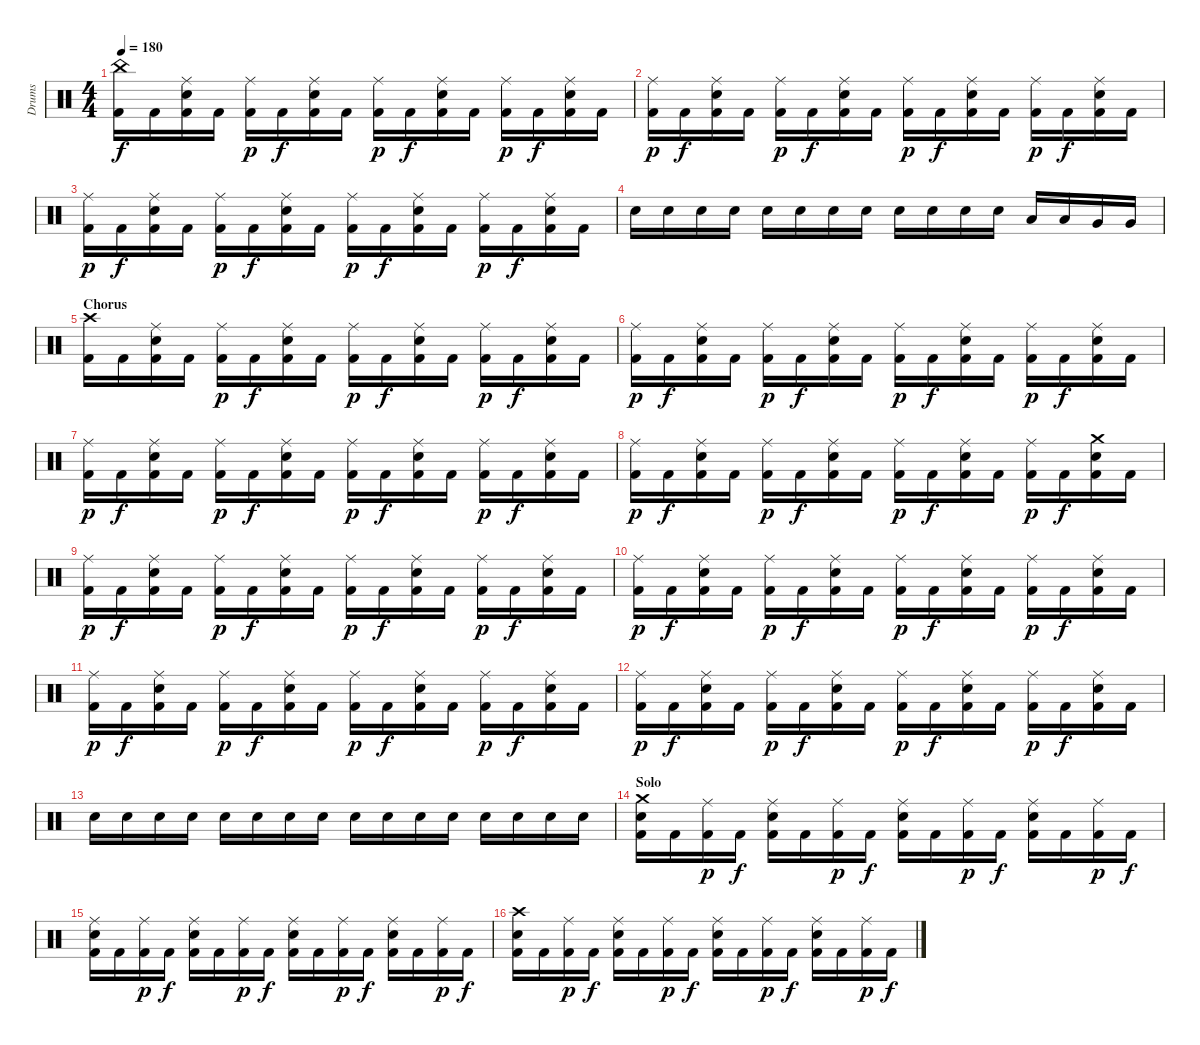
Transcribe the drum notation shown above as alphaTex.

\track ("Drums" "Drums") {instrument percussion}
\staff {score}
\articulation defaults
\ts (4 4)
\tempo 180
\clef neutral
\ks c
("China (hit)" "Kick (hit) 2").16{dy f} "Kick (hit) 2".16 ("Ride (middle)" "Snare (hit) 2" "Kick (hit) 2").16 "Kick (hit) 2".16 ("Ride (middle)" "Kick (hit) 2").16{dy p} "Kick (hit) 2".16{dy f} ("Ride (middle)" "Snare (hit) 2" "Kick (hit) 2").16 "Kick (hit) 2".16 ("Ride (middle)" "Kick (hit) 2").16{dy p} "Kick (hit) 2".16{dy f} ("Ride (middle)" "Snare (hit) 2" "Kick (hit) 2").16 "Kick (hit) 2".16 ("Ride (middle)" "Kick (hit) 2").16{dy p} "Kick (hit) 2".16{dy f} ("Ride (middle)" "Snare (hit) 2" "Kick (hit) 2").16 "Kick (hit) 2".16 |
("Ride (middle)" "Kick (hit) 2").16{dy p} "Kick (hit) 2".16{dy f} ("Ride (middle)" "Snare (hit) 2" "Kick (hit) 2").16 "Kick (hit) 2".16 ("Ride (middle)" "Kick (hit) 2").16{dy p} "Kick (hit) 2".16{dy f} ("Ride (middle)" "Snare (hit) 2" "Kick (hit) 2").16 "Kick (hit) 2".16 ("Ride (middle)" "Kick (hit) 2").16{dy p} "Kick (hit) 2".16{dy f} ("Ride (middle)" "Snare (hit) 2" "Kick (hit) 2").16 "Kick (hit) 2".16 ("Ride (middle)" "Kick (hit) 2").16{dy p} "Kick (hit) 2".16{dy f} ("Ride (middle)" "Snare (hit) 2" "Kick (hit) 2").16 "Kick (hit) 2".16 |
("Ride (middle)" "Kick (hit) 2").16{dy p} "Kick (hit) 2".16{dy f} ("Ride (middle)" "Snare (hit) 2" "Kick (hit) 2").16 "Kick (hit) 2".16 ("Ride (middle)" "Kick (hit) 2").16{dy p} "Kick (hit) 2".16{dy f} ("Ride (middle)" "Snare (hit) 2" "Kick (hit) 2").16 "Kick (hit) 2".16 ("Ride (middle)" "Kick (hit) 2").16{dy p} "Kick (hit) 2".16{dy f} ("Ride (middle)" "Snare (hit) 2" "Kick (hit) 2").16 "Kick (hit) 2".16 ("Ride (middle)" "Kick (hit) 2").16{dy p} "Kick (hit) 2".16{dy f} ("Ride (middle)" "Snare (hit) 2" "Kick (hit) 2").16 "Kick (hit) 2".16 |
"Snare (hit) 2".16 "Snare (hit) 2".16 "Snare (hit) 2".16 "Snare (hit) 2".16 "Snare (hit) 2".16 "Snare (hit) 2".16 "Snare (hit) 2".16 "Snare (hit) 2".16 "Snare (hit) 2".16 "Snare (hit) 2".16 "Snare (hit) 2".16 "Snare (hit) 2".16 "Low Tom (hit)".16 "Low Tom (hit)".16 "Very Low Tom (hit)".16 "Very Low Tom (hit)".16 |
\section ("" "Chorus")
("Crash high (hit)" "Kick (hit) 2").16 "Kick (hit) 2".16 ("Ride (middle)" "Snare (hit) 2" "Kick (hit) 2").16 "Kick (hit) 2".16 ("Ride (middle)" "Kick (hit) 2").16{dy p} "Kick (hit) 2".16{dy f} ("Ride (middle)" "Snare (hit) 2" "Kick (hit) 2").16 "Kick (hit) 2".16 ("Ride (middle)" "Kick (hit) 2").16{dy p} "Kick (hit) 2".16{dy f} ("Ride (middle)" "Snare (hit) 2" "Kick (hit) 2").16 "Kick (hit) 2".16 ("Ride (middle)" "Kick (hit) 2").16{dy p} "Kick (hit) 2".16{dy f} ("Ride (middle)" "Snare (hit) 2" "Kick (hit) 2").16 "Kick (hit) 2".16 |
("Ride (middle)" "Kick (hit) 2").16{dy p} "Kick (hit) 2".16{dy f} ("Ride (middle)" "Snare (hit) 2" "Kick (hit) 2").16 "Kick (hit) 2".16 ("Ride (middle)" "Kick (hit) 2").16{dy p} "Kick (hit) 2".16{dy f} ("Ride (middle)" "Snare (hit) 2" "Kick (hit) 2").16 "Kick (hit) 2".16 ("Ride (middle)" "Kick (hit) 2").16{dy p} "Kick (hit) 2".16{dy f} ("Ride (middle)" "Snare (hit) 2" "Kick (hit) 2").16 "Kick (hit) 2".16 ("Ride (middle)" "Kick (hit) 2").16{dy p} "Kick (hit) 2".16{dy f} ("Ride (middle)" "Snare (hit) 2" "Kick (hit) 2").16 "Kick (hit) 2".16 |
("Ride (middle)" "Kick (hit) 2").16{dy p} "Kick (hit) 2".16{dy f} ("Ride (middle)" "Snare (hit) 2" "Kick (hit) 2").16 "Kick (hit) 2".16 ("Ride (middle)" "Kick (hit) 2").16{dy p} "Kick (hit) 2".16{dy f} ("Ride (middle)" "Snare (hit) 2" "Kick (hit) 2").16 "Kick (hit) 2".16 ("Ride (middle)" "Kick (hit) 2").16{dy p} "Kick (hit) 2".16{dy f} ("Ride (middle)" "Snare (hit) 2" "Kick (hit) 2").16 "Kick (hit) 2".16 ("Ride (middle)" "Kick (hit) 2").16{dy p} "Kick (hit) 2".16{dy f} ("Ride (middle)" "Snare (hit) 2" "Kick (hit) 2").16 "Kick (hit) 2".16 |
("Ride (middle)" "Kick (hit) 2").16{dy p} "Kick (hit) 2".16{dy f} ("Ride (middle)" "Snare (hit) 2" "Kick (hit) 2").16 "Kick (hit) 2".16 ("Ride (middle)" "Kick (hit) 2").16{dy p} "Kick (hit) 2".16{dy f} ("Ride (middle)" "Snare (hit) 2" "Kick (hit) 2").16 "Kick (hit) 2".16 ("Ride (middle)" "Kick (hit) 2").16{dy p} "Kick (hit) 2".16{dy f} ("Ride (middle)" "Snare (hit) 2" "Kick (hit) 2").16 "Kick (hit) 2".16 ("Ride (middle)" "Kick (hit) 2").16{dy p} "Kick (hit) 2".16{dy f} ("Crash medium (hit)" "Snare (hit) 2" "Kick (hit) 2").16 "Kick (hit) 2".16 |
("Ride (middle)" "Kick (hit) 2").16{dy p} "Kick (hit) 2".16{dy f} ("Ride (middle)" "Snare (hit) 2" "Kick (hit) 2").16 "Kick (hit) 2".16 ("Ride (middle)" "Kick (hit) 2").16{dy p} "Kick (hit) 2".16{dy f} ("Ride (middle)" "Snare (hit) 2" "Kick (hit) 2").16 "Kick (hit) 2".16 ("Ride (middle)" "Kick (hit) 2").16{dy p} "Kick (hit) 2".16{dy f} ("Ride (middle)" "Snare (hit) 2" "Kick (hit) 2").16 "Kick (hit) 2".16 ("Ride (middle)" "Kick (hit) 2").16{dy p} "Kick (hit) 2".16{dy f} ("Ride (middle)" "Snare (hit) 2" "Kick (hit) 2").16 "Kick (hit) 2".16 |
("Ride (middle)" "Kick (hit) 2").16{dy p} "Kick (hit) 2".16{dy f} ("Ride (middle)" "Snare (hit) 2" "Kick (hit) 2").16 "Kick (hit) 2".16 ("Ride (middle)" "Kick (hit) 2").16{dy p} "Kick (hit) 2".16{dy f} ("Ride (middle)" "Snare (hit) 2" "Kick (hit) 2").16 "Kick (hit) 2".16 ("Ride (middle)" "Kick (hit) 2").16{dy p} "Kick (hit) 2".16{dy f} ("Ride (middle)" "Snare (hit) 2" "Kick (hit) 2").16 "Kick (hit) 2".16 ("Ride (middle)" "Kick (hit) 2").16{dy p} "Kick (hit) 2".16{dy f} ("Ride (middle)" "Snare (hit) 2" "Kick (hit) 2").16 "Kick (hit) 2".16 |
("Ride (middle)" "Kick (hit) 2").16{dy p} "Kick (hit) 2".16{dy f} ("Ride (middle)" "Snare (hit) 2" "Kick (hit) 2").16 "Kick (hit) 2".16 ("Ride (middle)" "Kick (hit) 2").16{dy p} "Kick (hit) 2".16{dy f} ("Ride (middle)" "Snare (hit) 2" "Kick (hit) 2").16 "Kick (hit) 2".16 ("Ride (middle)" "Kick (hit) 2").16{dy p} "Kick (hit) 2".16{dy f} ("Ride (middle)" "Snare (hit) 2" "Kick (hit) 2").16 "Kick (hit) 2".16 ("Ride (middle)" "Kick (hit) 2").16{dy p} "Kick (hit) 2".16{dy f} ("Ride (middle)" "Snare (hit) 2" "Kick (hit) 2").16 "Kick (hit) 2".16 |
("Ride (middle)" "Kick (hit) 2").16{dy p} "Kick (hit) 2".16{dy f} ("Ride (middle)" "Snare (hit) 2" "Kick (hit) 2").16 "Kick (hit) 2".16 ("Ride (middle)" "Kick (hit) 2").16{dy p} "Kick (hit) 2".16{dy f} ("Ride (middle)" "Snare (hit) 2" "Kick (hit) 2").16 "Kick (hit) 2".16 ("Ride (middle)" "Kick (hit) 2").16{dy p} "Kick (hit) 2".16{dy f} ("Ride (middle)" "Snare (hit) 2" "Kick (hit) 2").16 "Kick (hit) 2".16 ("Ride (middle)" "Kick (hit) 2").16{dy p} "Kick (hit) 2".16{dy f} ("Ride (middle)" "Snare (hit) 2" "Kick (hit) 2").16 "Kick (hit) 2".16 |
"Snare (hit) 2".16 "Snare (hit) 2".16 "Snare (hit) 2".16 "Snare (hit) 2".16 "Snare (hit) 2".16 "Snare (hit) 2".16 "Snare (hit) 2".16 "Snare (hit) 2".16 "Snare (hit) 2".16 "Snare (hit) 2".16 "Snare (hit) 2".16 "Snare (hit) 2".16 "Snare (hit) 2".16 "Snare (hit) 2".16 "Snare (hit) 2".16 "Snare (hit) 2".16 |
\section ("" "Solo")
("Crash medium (hit)" "Snare (hit) 2" "Kick (hit) 2").16 "Kick (hit) 2".16 ("Ride (middle)" "Kick (hit) 2").16{dy p} "Kick (hit) 2".16{dy f} ("Ride (middle)" "Snare (hit) 2" "Kick (hit) 2").16 "Kick (hit) 2".16 ("Ride (middle)" "Kick (hit) 2").16{dy p} "Kick (hit) 2".16{dy f} ("Ride (middle)" "Snare (hit) 2" "Kick (hit) 2").16 "Kick (hit) 2".16 ("Ride (middle)" "Kick (hit) 2").16{dy p} "Kick (hit) 2".16{dy f} ("Ride (middle)" "Snare (hit) 2" "Kick (hit) 2").16 "Kick (hit) 2".16 ("Ride (middle)" "Kick (hit) 2").16{dy p} "Kick (hit) 2".16{dy f} |
("Ride (middle)" "Snare (hit) 2" "Kick (hit) 2").16 "Kick (hit) 2".16 ("Ride (middle)" "Kick (hit) 2").16{dy p} "Kick (hit) 2".16{dy f} ("Ride (middle)" "Snare (hit) 2" "Kick (hit) 2").16 "Kick (hit) 2".16 ("Ride (middle)" "Kick (hit) 2").16{dy p} "Kick (hit) 2".16{dy f} ("Ride (middle)" "Snare (hit) 2" "Kick (hit) 2").16 "Kick (hit) 2".16 ("Ride (middle)" "Kick (hit) 2").16{dy p} "Kick (hit) 2".16{dy f} ("Ride (middle)" "Snare (hit) 2" "Kick (hit) 2").16 "Kick (hit) 2".16 ("Ride (middle)" "Kick (hit) 2").16{dy p} "Kick (hit) 2".16{dy f} |
("Crash high (hit)" "Snare (hit) 2" "Kick (hit) 2").16 "Kick (hit) 2".16 ("Ride (middle)" "Kick (hit) 2").16{dy p} "Kick (hit) 2".16{dy f} ("Ride (middle)" "Snare (hit) 2" "Kick (hit) 2").16 "Kick (hit) 2".16 ("Ride (middle)" "Kick (hit) 2").16{dy p} "Kick (hit) 2".16{dy f} ("Ride (middle)" "Snare (hit) 2" "Kick (hit) 2").16 "Kick (hit) 2".16 ("Ride (middle)" "Kick (hit) 2").16{dy p} "Kick (hit) 2".16{dy f} ("Ride (middle)" "Snare (hit) 2" "Kick (hit) 2").16 "Kick (hit) 2".16 ("Ride (middle)" "Kick (hit) 2").16{dy p} "Kick (hit) 2".16{dy f}
